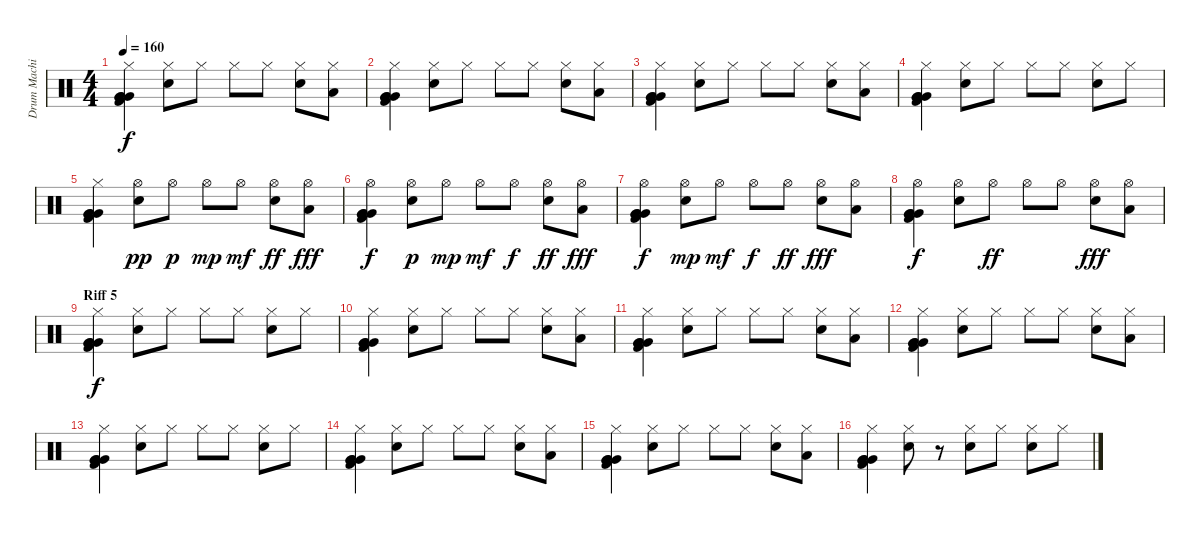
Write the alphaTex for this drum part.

\track ("Drum Machine" "Drum Machi") {instrument percussion}
\staff {score}
\articulation defaults
\ts (4 4)
\tempo 160
\clef neutral
\ks c
("Hi-Hat (closed)" "Very Low Tom (hit)" "Very Low Tom (hit)" "Very Low Tom (hit)" "Kick (hit) 2").4{dy f} ("Hi-Hat (closed)" "Electric Snare (hit)").8 "Hi-Hat (closed)".8 "Hi-Hat (closed)".8 "Hi-Hat (closed)".8 ("Hi-Hat (closed)" "Electric Snare (hit)").8 ("Hi-Hat (closed)" "Low Floor Tom (hit)").8 |
("Hi-Hat (closed)" "Very Low Tom (hit)" "Very Low Tom (hit)" "Very Low Tom (hit)" "Kick (hit) 2").4 ("Hi-Hat (closed)" "Electric Snare (hit)").8 "Hi-Hat (closed)".8 "Hi-Hat (closed)".8 "Hi-Hat (closed)".8 ("Hi-Hat (closed)" "Electric Snare (hit)").8 ("Hi-Hat (closed)" "Low Floor Tom (hit)").8 |
("Hi-Hat (closed)" "Very Low Tom (hit)" "Very Low Tom (hit)" "Very Low Tom (hit)" "Kick (hit) 2").4 ("Hi-Hat (closed)" "Electric Snare (hit)").8 "Hi-Hat (closed)".8 "Hi-Hat (closed)".8 "Hi-Hat (closed)".8 ("Hi-Hat (closed)" "Electric Snare (hit)").8 ("Hi-Hat (closed)" "Low Floor Tom (hit)").8 |
("Hi-Hat (closed)" "Very Low Tom (hit)" "Very Low Tom (hit)" "Very Low Tom (hit)" "Kick (hit) 2").4 ("Hi-Hat (closed)" "Electric Snare (hit)").8 "Hi-Hat (closed)".8 "Hi-Hat (closed)".8 "Hi-Hat (closed)".8 ("Hi-Hat (closed)" "Electric Snare (hit)").8 "Hi-Hat (closed)".8 |
("Hi-Hat (closed)" "Very Low Tom (hit)" "Very Low Tom (hit)" "Very Low Tom (hit)" "Kick (hit) 2").4 ("Hi-Hat (open)" "Electric Snare (hit)").8{dy pp} "Hi-Hat (open)".8{dy p} "Hi-Hat (open)".8{dy mp} "Hi-Hat (open)".8{dy mf} ("Hi-Hat (open)" "Electric Snare (hit)").8{dy ff} ("Hi-Hat (open)" "Low Floor Tom (hit)").8{dy fff} |
("Hi-Hat (open)" "Very Low Tom (hit)" "Very Low Tom (hit)" "Very Low Tom (hit)" "Kick (hit) 2").4{dy f} ("Hi-Hat (open)" "Electric Snare (hit)").8{dy p} "Hi-Hat (open)".8{dy mp} "Hi-Hat (open)".8{dy mf} "Hi-Hat (open)".8{dy f} ("Hi-Hat (open)" "Electric Snare (hit)").8{dy ff} ("Hi-Hat (open)" "Low Floor Tom (hit)").8{dy fff} |
("Hi-Hat (open)" "Very Low Tom (hit)" "Very Low Tom (hit)" "Very Low Tom (hit)" "Kick (hit) 2").4{dy f} ("Hi-Hat (open)" "Electric Snare (hit)").8{dy mp} "Hi-Hat (open)".8{dy mf} "Hi-Hat (open)".8{dy f} "Hi-Hat (open)".8{dy ff} ("Hi-Hat (open)" "Electric Snare (hit)").8{dy fff} ("Hi-Hat (open)" "Low Floor Tom (hit)").8 |
("Hi-Hat (open)" "Very Low Tom (hit)" "Very Low Tom (hit)" "Very Low Tom (hit)" "Kick (hit) 2").4{dy f} ("Hi-Hat (open)" "Electric Snare (hit)").8 "Hi-Hat (open)".8{dy ff} "Hi-Hat (open)".8 "Hi-Hat (open)".8 ("Hi-Hat (open)" "Electric Snare (hit)").8{dy fff} ("Hi-Hat (open)" "Low Floor Tom (hit)").8 |
\section ("" "Riff 5")
("Hi-Hat (closed)" "Very Low Tom (hit)" "Very Low Tom (hit)" "Very Low Tom (hit)" "Kick (hit) 2").4{dy f} ("Hi-Hat (closed)" "Electric Snare (hit)").8 "Hi-Hat (closed)".8 "Hi-Hat (closed)".8 "Hi-Hat (closed)".8 ("Hi-Hat (closed)" "Electric Snare (hit)").8 "Hi-Hat (closed)".8 |
("Hi-Hat (closed)" "Very Low Tom (hit)" "Very Low Tom (hit)" "Very Low Tom (hit)" "Kick (hit) 2").4 ("Hi-Hat (closed)" "Electric Snare (hit)").8 "Hi-Hat (closed)".8 "Hi-Hat (closed)".8 "Hi-Hat (closed)".8 ("Hi-Hat (closed)" "Electric Snare (hit)").8 ("Hi-Hat (closed)" "Low Floor Tom (hit)").8 |
("Hi-Hat (closed)" "Very Low Tom (hit)" "Very Low Tom (hit)" "Very Low Tom (hit)" "Kick (hit) 2").4 ("Hi-Hat (closed)" "Electric Snare (hit)").8 "Hi-Hat (closed)".8 "Hi-Hat (closed)".8 "Hi-Hat (closed)".8 ("Hi-Hat (closed)" "Electric Snare (hit)").8 ("Hi-Hat (closed)" "Low Floor Tom (hit)").8 |
("Hi-Hat (closed)" "Very Low Tom (hit)" "Very Low Tom (hit)" "Very Low Tom (hit)" "Kick (hit) 2").4 ("Hi-Hat (closed)" "Electric Snare (hit)").8 "Hi-Hat (closed)".8 "Hi-Hat (closed)".8 "Hi-Hat (closed)".8 ("Hi-Hat (closed)" "Electric Snare (hit)").8 ("Hi-Hat (closed)" "Low Floor Tom (hit)").8 |
("Hi-Hat (closed)" "Very Low Tom (hit)" "Very Low Tom (hit)" "Very Low Tom (hit)" "Kick (hit) 2").4 ("Hi-Hat (closed)" "Electric Snare (hit)").8 "Hi-Hat (closed)".8 "Hi-Hat (closed)".8 "Hi-Hat (closed)".8 ("Hi-Hat (closed)" "Electric Snare (hit)").8 "Hi-Hat (closed)".8 |
("Hi-Hat (closed)" "Very Low Tom (hit)" "Very Low Tom (hit)" "Very Low Tom (hit)" "Kick (hit) 2").4 ("Hi-Hat (closed)" "Electric Snare (hit)").8 "Hi-Hat (closed)".8 "Hi-Hat (closed)".8 "Hi-Hat (closed)".8 ("Hi-Hat (closed)" "Electric Snare (hit)").8 ("Hi-Hat (closed)" "Low Floor Tom (hit)").8 |
("Hi-Hat (closed)" "Very Low Tom (hit)" "Very Low Tom (hit)" "Very Low Tom (hit)" "Kick (hit) 2").4 ("Hi-Hat (closed)" "Electric Snare (hit)").8 "Hi-Hat (closed)".8 "Hi-Hat (closed)".8 "Hi-Hat (closed)".8 ("Hi-Hat (closed)" "Electric Snare (hit)").8 ("Hi-Hat (closed)" "Low Floor Tom (hit)").8 |
("Hi-Hat (closed)" "Very Low Tom (hit)" "Very Low Tom (hit)" "Very Low Tom (hit)" "Kick (hit) 2").4 ("Hi-Hat (closed)" "Electric Snare (hit)").8 r.8 ("Hi-Hat (closed)" "Electric Snare (hit)").8 "Hi-Hat (closed)".8 ("Hi-Hat (closed)" "Electric Snare (hit)").8 "Hi-Hat (closed)".8
